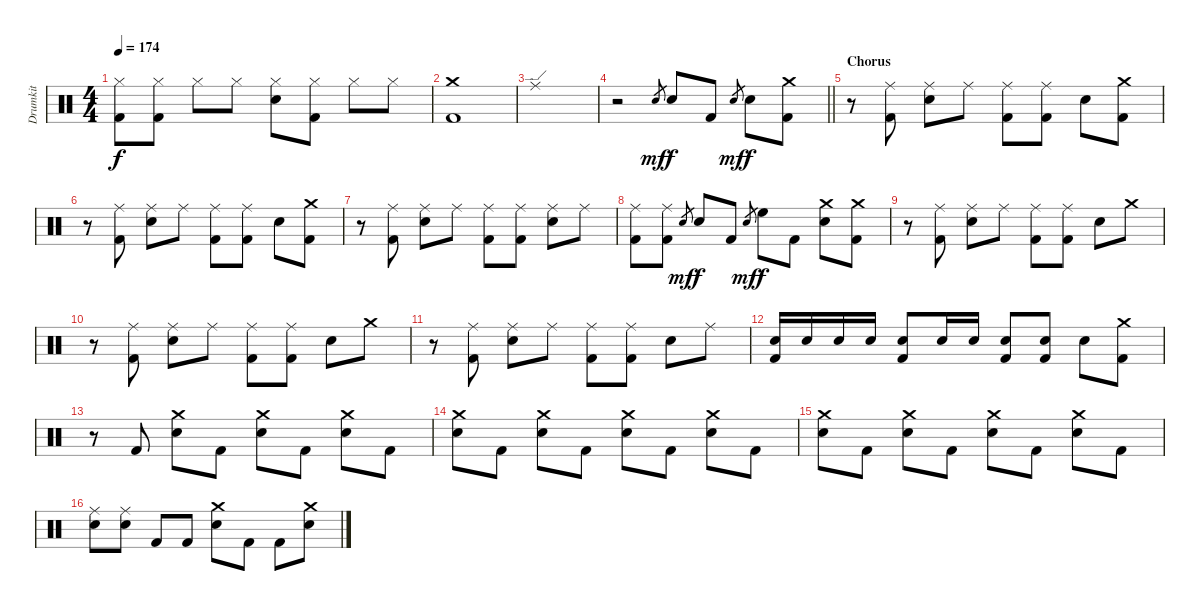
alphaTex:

\track ("Drumkit" "Drumkit") {instrument percussion}
\staff {score}
\articulation defaults
\ts (4 4)
\tempo 174
\clef neutral
\ks c
("Hi-Hat (closed)" "Kick (hit) 2").8{dy f} ("Hi-Hat (closed)" "Kick (hit) 2").8 "Hi-Hat (closed)".8 "Hi-Hat (closed)".8 ("Hi-Hat (closed)" "Snare (hit) 2").8 ("Hi-Hat (closed)" "Kick (hit) 2").8 "Hi-Hat (closed)".8 "Hi-Hat (closed)".8 |
("Crash medium (hit)" "Kick (hit) 2").1 |
"Ride (edge)".1 |
\barLineRight lightlight
r.2 "Snare (hit)".8{gr dy mf} "Snare (hit) 2".8{dy f} "Kick (hit) 2".8 "Snare (hit)".8{gr dy mf} "Snare (hit) 2".8{dy f} ("Crash medium (hit)" "Kick (hit) 2").8 |
\section ("" "Chorus")
r.8 ("Ride (middle)" "Kick (hit) 2").8 ("Ride (middle)" "Snare (hit) 2").8 "Ride (middle)".8 ("Ride (middle)" "Kick (hit) 2").8 ("Ride (middle)" "Kick (hit) 2").8 "Snare (hit) 2".8 ("Crash medium (hit)" "Kick (hit) 2").8 |
r.8 ("Ride (middle)" "Kick (hit) 2").8 ("Ride (middle)" "Snare (hit) 2").8 "Ride (middle)".8 ("Ride (middle)" "Kick (hit) 2").8 ("Ride (middle)" "Kick (hit) 2").8 "Snare (hit) 2".8 ("Crash medium (hit)" "Kick (hit) 2").8 |
r.8 ("Ride (middle)" "Kick (hit) 2").8 ("Ride (middle)" "Snare (hit) 2").8 "Ride (middle)".8 ("Ride (middle)" "Kick (hit) 2").8 ("Ride (middle)" "Kick (hit) 2").8 ("Ride (middle)" "Snare (hit) 2").8 "Ride (middle)".8 |
("Ride (middle)" "Kick (hit) 2").8 ("Ride (middle)" "Kick (hit) 2").8 "Snare (hit)".8{gr dy mf} "Snare (hit) 2".8{dy f} "Kick (hit) 2".8 "Snare (hit)".8{gr dy mf} "High Floor Tom (hit)".8{dy f} "Kick (hit) 2".8 ("Crash medium (hit)" "Snare (hit) 2").8 ("Crash medium (hit)" "Kick (hit) 2").8 |
r.8 ("Ride (middle)" "Kick (hit) 2").8 ("Ride (middle)" "Snare (hit) 2").8 "Ride (middle)".8 ("Ride (middle)" "Kick (hit) 2").8 ("Ride (middle)" "Kick (hit) 2").8 "Snare (hit) 2".8 "Crash medium (hit)".8 |
r.8 ("Ride (middle)" "Kick (hit) 2").8 ("Ride (middle)" "Snare (hit) 2").8 "Ride (middle)".8 ("Ride (middle)" "Kick (hit) 2").8 ("Ride (middle)" "Kick (hit) 2").8 "Snare (hit) 2".8 "Crash medium (hit)".8 |
r.8 ("Ride (middle)" "Kick (hit) 2").8 ("Ride (middle)" "Snare (hit) 2").8 "Ride (middle)".8 ("Ride (middle)" "Kick (hit) 2").8 ("Ride (middle)" "Kick (hit) 2").8 "Snare (hit) 2".8 "Ride (middle)".8 |
("Snare (hit) 2" "Kick (hit) 2").16 "Snare (hit) 2".16 "Snare (hit) 2".16 "Snare (hit) 2".16 ("Snare (hit) 2" "Kick (hit) 2").8 "Snare (hit) 2".16 "Snare (hit) 2".16 ("Snare (hit) 2" "Kick (hit) 2").8 ("Snare (hit) 2" "Kick (hit) 2").8 "Snare (hit) 2".8 ("Crash medium (hit)" "Kick (hit) 2").8 |
r.8 "Kick (hit) 2".8 ("Crash medium (hit)" "Snare (hit) 2").8 "Kick (hit) 2".8 ("Crash medium (hit)" "Snare (hit) 2").8 "Kick (hit) 2".8 ("Crash medium (hit)" "Snare (hit) 2").8 "Kick (hit) 2".8 |
("Crash medium (hit)" "Snare (hit) 2").8 "Kick (hit) 2".8 ("Crash medium (hit)" "Snare (hit) 2").8 "Kick (hit) 2".8 ("Crash medium (hit)" "Snare (hit) 2").8 "Kick (hit) 2".8 ("Crash medium (hit)" "Snare (hit) 2").8 "Kick (hit) 2".8 |
("Crash medium (hit)" "Snare (hit) 2").8 "Kick (hit) 2".8 ("Crash medium (hit)" "Snare (hit) 2").8 "Kick (hit) 2".8 ("Crash medium (hit)" "Snare (hit) 2").8 "Kick (hit) 2".8 ("Crash medium (hit)" "Snare (hit) 2").8 "Kick (hit) 2".8 |
("Ride (middle)" "Snare (hit) 2").8 ("Ride (middle)" "Snare (hit) 2").8 "Kick (hit) 2".8 "Kick (hit) 2".8 ("Crash medium (hit)" "Snare (hit) 2").8 "Kick (hit) 2".8 "Kick (hit) 2".8 ("Crash medium (hit)" "Snare (hit) 2").8
